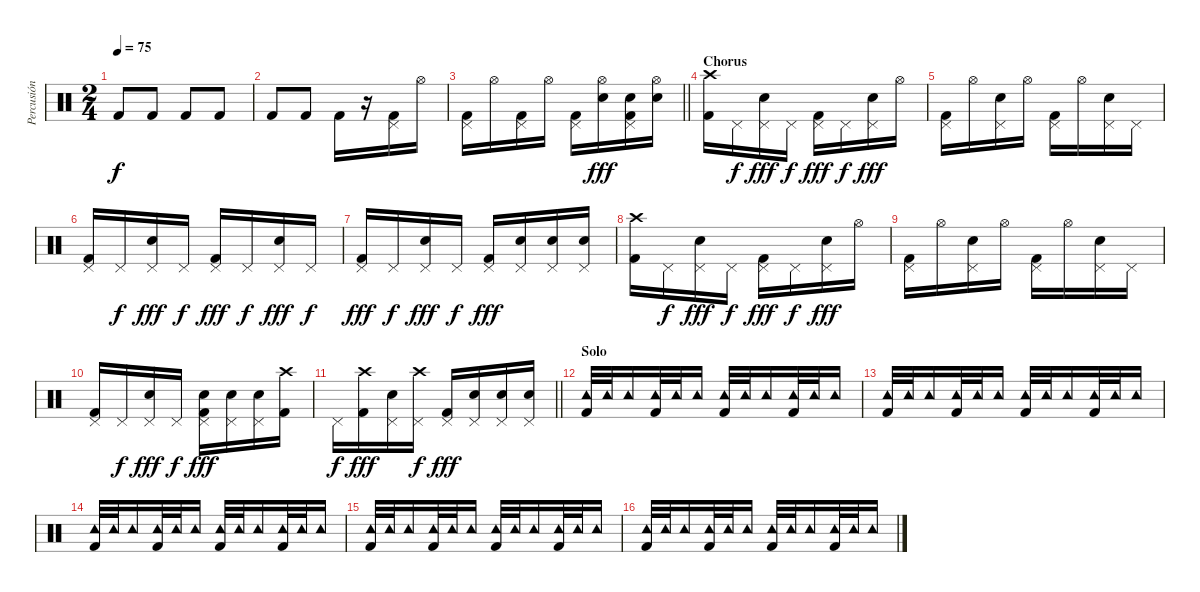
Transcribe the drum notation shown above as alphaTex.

\track ("Percusión" "Percusión") {instrument percussion}
\staff {score}
\articulation defaults
\ts (2 4)
\tempo 75
\clef neutral
\ks c "Kick (hit) 2".8{dy f} "Kick (hit) 2".8 "Kick (hit) 2".8 "Kick (hit) 2".8
|
"Kick (hit) 2".8 "Kick (hit) 2".8 "Kick (hit) 2".16 r.16 ("Pedal Hi-Hat (hit)" "Kick (hit) 2").16 "Hi-Hat (open)".16 |
\barLineRight lightlight
("Pedal Hi-Hat (hit)" "Kick (hit) 2").16 "Hi-Hat (open)".16 ("Pedal Hi-Hat (hit)" "Kick (hit) 2").16 "Hi-Hat (open)".16 ("Pedal Hi-Hat (hit)" "Kick (hit) 2").16 ("Hi-Hat (open)" "Snare (hit) 2").16{dy fff} ("Pedal Hi-Hat (hit)" "Snare (hit) 2" "Kick (hit) 2").16 ("Hi-Hat (open)" "Snare (hit) 2").16 |
\section ("" "Chorus")
("Crash high (hit)" "Kick (hit) 2").16 "Pedal Hi-Hat (hit)".16{dy f} ("Pedal Hi-Hat (hit)" "Snare (hit) 2").16{dy fff} "Pedal Hi-Hat (hit)".16{dy f} ("Pedal Hi-Hat (hit)" "Kick (hit) 2").16{dy fff} "Pedal Hi-Hat (hit)".16{dy f} ("Pedal Hi-Hat (hit)" "Snare (hit) 2").16{dy fff} "Hi-Hat (open)".16 |
("Pedal Hi-Hat (hit)" "Kick (hit) 2").16 "Hi-Hat (open)".16 ("Pedal Hi-Hat (hit)" "Snare (hit) 2").16 "Hi-Hat (open)".16 ("Pedal Hi-Hat (hit)" "Kick (hit) 2").16 "Hi-Hat (open)".16 ("Pedal Hi-Hat (hit)" "Snare (hit) 2").16 "Pedal Hi-Hat (hit)".16 |
("Pedal Hi-Hat (hit)" "Kick (hit) 2").16 "Pedal Hi-Hat (hit)".16{dy f} ("Pedal Hi-Hat (hit)" "Snare (hit) 2").16{dy fff} "Pedal Hi-Hat (hit)".16{dy f} ("Pedal Hi-Hat (hit)" "Kick (hit) 2").16{dy fff} "Pedal Hi-Hat (hit)".16{dy f} ("Pedal Hi-Hat (hit)" "Snare (hit) 2").16{dy fff} "Pedal Hi-Hat (hit)".16{dy f} |
("Pedal Hi-Hat (hit)" "Kick (hit) 2").16{dy fff} "Pedal Hi-Hat (hit)".16{dy f} ("Pedal Hi-Hat (hit)" "Snare (hit) 2").16{dy fff} "Pedal Hi-Hat (hit)".16{dy f} ("Pedal Hi-Hat (hit)" "Kick (hit) 2").16{dy fff} ("Pedal Hi-Hat (hit)" "Snare (hit) 2").16 ("Pedal Hi-Hat (hit)" "Snare (hit) 2").16 ("Pedal Hi-Hat (hit)" "Snare (hit) 2").16 |
("Crash high (hit)" "Kick (hit) 2").16 "Pedal Hi-Hat (hit)".16{dy f} ("Pedal Hi-Hat (hit)" "Snare (hit) 2").16{dy fff} "Pedal Hi-Hat (hit)".16{dy f} ("Pedal Hi-Hat (hit)" "Kick (hit) 2").16{dy fff} "Pedal Hi-Hat (hit)".16{dy f} ("Pedal Hi-Hat (hit)" "Snare (hit) 2").16{dy fff} "Hi-Hat (open)".16 |
("Pedal Hi-Hat (hit)" "Kick (hit) 2").16 "Hi-Hat (open)".16 ("Pedal Hi-Hat (hit)" "Snare (hit) 2").16 "Hi-Hat (open)".16 ("Pedal Hi-Hat (hit)" "Kick (hit) 2").16 "Hi-Hat (open)".16 ("Pedal Hi-Hat (hit)" "Snare (hit) 2").16 "Pedal Hi-Hat (hit)".16 |
("Pedal Hi-Hat (hit)" "Kick (hit) 2").16 "Pedal Hi-Hat (hit)".16{dy f} ("Pedal Hi-Hat (hit)" "Snare (hit) 2").16{dy fff} "Pedal Hi-Hat (hit)".16{dy f} ("Pedal Hi-Hat (hit)" "Snare (hit) 2" "Kick (hit) 2").16{dy fff} ("Pedal Hi-Hat (hit)" "Snare (hit) 2").16 ("Pedal Hi-Hat (hit)" "Snare (hit) 2").16 ("Crash high (hit)" "Kick (hit) 2").16 |
\barLineRight lightlight "Pedal Hi-Hat (hit)".16{dy f}
("Crash high (hit)" "Kick (hit) 2").16{dy fff} ("Pedal Hi-Hat (hit)" "Snare (hit) 2").16 ("Crash high (hit)" "Pedal Hi-Hat (hit)").16{dy f} ("Pedal Hi-Hat (hit)" "Kick (hit) 2").16{dy fff} ("Pedal Hi-Hat (hit)" "Snare (hit) 2").16 ("Pedal Hi-Hat (hit)" "Snare (hit) 2").16 ("Pedal Hi-Hat (hit)" "Snare (hit) 2").16 |
\section ("" "Solo")
("Tambourine (hit)" "Kick (hit) 2").32 "Tambourine (hit)".32 "Tambourine (hit)".16 ("Tambourine (hit)" "Kick (hit) 2").32 "Tambourine (hit)".32 "Tambourine (hit)".16 ("Tambourine (hit)" "Kick (hit) 2").32 "Tambourine (hit)".32 "Tambourine (hit)".16 ("Tambourine (hit)" "Kick (hit) 2").32 "Tambourine (hit)".32 "Tambourine (hit)".16 |
("Tambourine (hit)" "Kick (hit) 2").32 "Tambourine (hit)".32 "Tambourine (hit)".16 ("Tambourine (hit)" "Kick (hit) 2").32 "Tambourine (hit)".32 "Tambourine (hit)".16 ("Tambourine (hit)" "Kick (hit) 2").32 "Tambourine (hit)".32 "Tambourine (hit)".16 ("Tambourine (hit)" "Kick (hit) 2").32 "Tambourine (hit)".32 "Tambourine (hit)".16 |
("Tambourine (hit)" "Kick (hit) 2").32 "Tambourine (hit)".32 "Tambourine (hit)".16 ("Tambourine (hit)" "Kick (hit) 2").32 "Tambourine (hit)".32 "Tambourine (hit)".16 ("Tambourine (hit)" "Kick (hit) 2").32 "Tambourine (hit)".32 "Tambourine (hit)".16 ("Tambourine (hit)" "Kick (hit) 2").32 "Tambourine (hit)".32 "Tambourine (hit)".16 |
("Tambourine (hit)" "Kick (hit) 2").32 "Tambourine (hit)".32 "Tambourine (hit)".16 ("Tambourine (hit)" "Kick (hit) 2").32 "Tambourine (hit)".32 "Tambourine (hit)".16 ("Tambourine (hit)" "Kick (hit) 2").32 "Tambourine (hit)".32 "Tambourine (hit)".16 ("Tambourine (hit)" "Kick (hit) 2").32 "Tambourine (hit)".32 "Tambourine (hit)".16 |
("Tambourine (hit)" "Kick (hit) 2").32 "Tambourine (hit)".32 "Tambourine (hit)".16 ("Tambourine (hit)" "Kick (hit) 2").32 "Tambourine (hit)".32 "Tambourine (hit)".16 ("Tambourine (hit)" "Kick (hit) 2").32 "Tambourine (hit)".32 "Tambourine (hit)".16 ("Tambourine (hit)" "Kick (hit) 2").32 "Tambourine (hit)".32 "Tambourine (hit)".16
